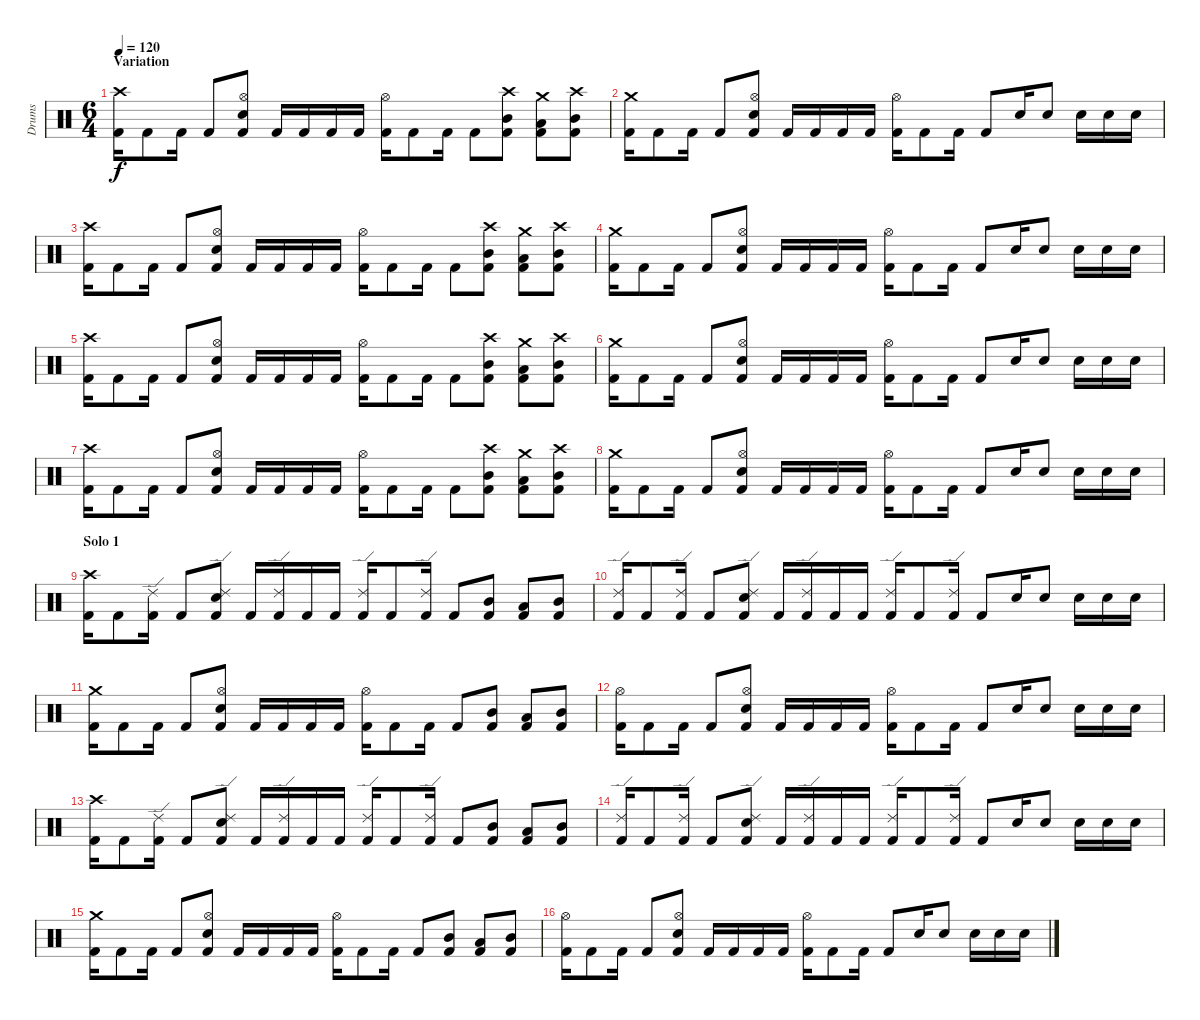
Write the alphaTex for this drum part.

\track ("Drums" "Drums") {instrument percussion}
\staff {score}
\articulation defaults
\ts (6 4)
\section ("" "Variation")
\tempo 120
\clef neutral
\ks c
("Crash high (hit)" "Kick (hit) 2").16{dy f} "Kick (hit) 2".8 "Kick (hit) 2".16 "Kick (hit) 2".8 ("Hi-Hat (open)" "Snare (hit) 2" "Kick (hit) 2").8 "Kick (hit) 2".16 "Kick (hit) 2".16 "Kick (hit) 2".16 "Kick (hit) 2".16 ("Hi-Hat (open)" "Kick (hit) 2").16 "Kick (hit) 2".8 "Kick (hit) 2".16 "Kick (hit) 2".8 ("Crash high (hit)" "Mid Tom (hit)" "Kick (hit) 2").8 ("Crash medium (hit)" "Low Tom (hit)" "Kick (hit) 2").8 ("Crash high (hit)" "Mid Tom (hit)" "Kick (hit) 2").8 |
("Crash medium (hit)" "Kick (hit) 2").16 "Kick (hit) 2".8 "Kick (hit) 2".16 "Kick (hit) 2".8 ("Hi-Hat (open)" "Snare (hit) 2" "Kick (hit) 2").8 "Kick (hit) 2".16 "Kick (hit) 2".16 "Kick (hit) 2".16 "Kick (hit) 2".16 ("Hi-Hat (open)" "Kick (hit) 2").16 "Kick (hit) 2".8 "Kick (hit) 2".16 "Kick (hit) 2".8 "Snare (hit) 2".16 "Snare (hit) 2".8 "Snare (hit) 2".16 "Snare (hit) 2".16 "Snare (hit) 2".16 |
("Crash high (hit)" "Kick (hit) 2").16 "Kick (hit) 2".8 "Kick (hit) 2".16 "Kick (hit) 2".8 ("Hi-Hat (open)" "Snare (hit) 2" "Kick (hit) 2").8 "Kick (hit) 2".16 "Kick (hit) 2".16 "Kick (hit) 2".16 "Kick (hit) 2".16 ("Hi-Hat (open)" "Kick (hit) 2").16 "Kick (hit) 2".8 "Kick (hit) 2".16 "Kick (hit) 2".8 ("Crash high (hit)" "Mid Tom (hit)" "Kick (hit) 2").8 ("Crash medium (hit)" "Low Tom (hit)" "Kick (hit) 2").8 ("Crash high (hit)" "Mid Tom (hit)" "Kick (hit) 2").8 |
("Crash medium (hit)" "Kick (hit) 2").16 "Kick (hit) 2".8 "Kick (hit) 2".16 "Kick (hit) 2".8 ("Hi-Hat (open)" "Snare (hit) 2" "Kick (hit) 2").8 "Kick (hit) 2".16 "Kick (hit) 2".16 "Kick (hit) 2".16 "Kick (hit) 2".16 ("Hi-Hat (open)" "Kick (hit) 2").16 "Kick (hit) 2".8 "Kick (hit) 2".16 "Kick (hit) 2".8 "Snare (hit) 2".16 "Snare (hit) 2".8 "Snare (hit) 2".16 "Snare (hit) 2".16 "Snare (hit) 2".16 |
("Crash high (hit)" "Kick (hit) 2").16 "Kick (hit) 2".8 "Kick (hit) 2".16 "Kick (hit) 2".8 ("Hi-Hat (open)" "Snare (hit) 2" "Kick (hit) 2").8 "Kick (hit) 2".16 "Kick (hit) 2".16 "Kick (hit) 2".16 "Kick (hit) 2".16 ("Hi-Hat (open)" "Kick (hit) 2").16 "Kick (hit) 2".8 "Kick (hit) 2".16 "Kick (hit) 2".8 ("Crash high (hit)" "Mid Tom (hit)" "Kick (hit) 2").8 ("Crash medium (hit)" "Low Tom (hit)" "Kick (hit) 2").8 ("Crash high (hit)" "Mid Tom (hit)" "Kick (hit) 2").8 |
("Crash medium (hit)" "Kick (hit) 2").16 "Kick (hit) 2".8 "Kick (hit) 2".16 "Kick (hit) 2".8 ("Hi-Hat (open)" "Snare (hit) 2" "Kick (hit) 2").8 "Kick (hit) 2".16 "Kick (hit) 2".16 "Kick (hit) 2".16 "Kick (hit) 2".16 ("Hi-Hat (open)" "Kick (hit) 2").16 "Kick (hit) 2".8 "Kick (hit) 2".16 "Kick (hit) 2".8 "Snare (hit) 2".16 "Snare (hit) 2".8 "Snare (hit) 2".16 "Snare (hit) 2".16 "Snare (hit) 2".16 |
("Crash high (hit)" "Kick (hit) 2").16 "Kick (hit) 2".8 "Kick (hit) 2".16 "Kick (hit) 2".8 ("Hi-Hat (open)" "Snare (hit) 2" "Kick (hit) 2").8 "Kick (hit) 2".16 "Kick (hit) 2".16 "Kick (hit) 2".16 "Kick (hit) 2".16 ("Hi-Hat (open)" "Kick (hit) 2").16 "Kick (hit) 2".8 "Kick (hit) 2".16 "Kick (hit) 2".8 ("Crash high (hit)" "Mid Tom (hit)" "Kick (hit) 2").8 ("Crash medium (hit)" "Low Tom (hit)" "Kick (hit) 2").8 ("Crash high (hit)" "Mid Tom (hit)" "Kick (hit) 2").8 |
("Crash medium (hit)" "Kick (hit) 2").16 "Kick (hit) 2".8 "Kick (hit) 2".16 "Kick (hit) 2".8 ("Hi-Hat (open)" "Snare (hit) 2" "Kick (hit) 2").8 "Kick (hit) 2".16 "Kick (hit) 2".16 "Kick (hit) 2".16 "Kick (hit) 2".16 ("Hi-Hat (open)" "Kick (hit) 2").16 "Kick (hit) 2".8 "Kick (hit) 2".16 "Kick (hit) 2".8 "Snare (hit) 2".16 "Snare (hit) 2".8 "Snare (hit) 2".16 "Snare (hit) 2".16 "Snare (hit) 2".16 |
\section ("" "Solo 1")
("Crash high (hit)" "Kick (hit) 2").16 "Kick (hit) 2".8 ("Ride (edge) 2" "Kick (hit) 2").16 "Kick (hit) 2".8 ("Ride (edge) 2" "Snare (hit) 2" "Kick (hit) 2").8 "Kick (hit) 2".16 ("Ride (edge) 2" "Kick (hit) 2").16 "Kick (hit) 2".16 "Kick (hit) 2".16 ("Ride (edge) 2" "Kick (hit) 2").16 "Kick (hit) 2".8 ("Ride (edge) 2" "Kick (hit) 2").16 "Kick (hit) 2".8 ("Mid Tom (hit)" "Kick (hit) 2").8 ("Low Tom (hit)" "Kick (hit) 2").8 ("Mid Tom (hit)" "Kick (hit) 2").8 |
("Ride (edge) 2" "Kick (hit) 2").16 "Kick (hit) 2".8 ("Ride (edge) 2" "Kick (hit) 2").16 "Kick (hit) 2".8 ("Ride (edge) 2" "Snare (hit) 2" "Kick (hit) 2").8 "Kick (hit) 2".16 ("Ride (edge) 2" "Kick (hit) 2").16 "Kick (hit) 2".16 "Kick (hit) 2".16 ("Ride (edge) 2" "Kick (hit) 2").16 "Kick (hit) 2".8 ("Ride (edge) 2" "Kick (hit) 2").16 "Kick (hit) 2".8 "Snare (hit) 2".16 "Snare (hit) 2".8 "Snare (hit) 2".16 "Snare (hit) 2".16 "Snare (hit) 2".16 |
("Crash medium (hit)" "Kick (hit) 2").16 "Kick (hit) 2".8 "Kick (hit) 2".16 "Kick (hit) 2".8 ("Hi-Hat (open)" "Snare (hit) 2" "Kick (hit) 2").8 "Kick (hit) 2".16 "Kick (hit) 2".16 "Kick (hit) 2".16 "Kick (hit) 2".16 ("Hi-Hat (open)" "Kick (hit) 2").16 "Kick (hit) 2".8 "Kick (hit) 2".16 "Kick (hit) 2".8 ("Mid Tom (hit)" "Kick (hit) 2").8 ("Low Tom (hit)" "Kick (hit) 2").8 ("Mid Tom (hit)" "Kick (hit) 2").8 |
("Hi-Hat (open)" "Kick (hit) 2").16 "Kick (hit) 2".8 "Kick (hit) 2".16 "Kick (hit) 2".8 ("Hi-Hat (open)" "Snare (hit) 2" "Kick (hit) 2").8 "Kick (hit) 2".16 "Kick (hit) 2".16 "Kick (hit) 2".16 "Kick (hit) 2".16 ("Hi-Hat (open)" "Kick (hit) 2").16 "Kick (hit) 2".8 "Kick (hit) 2".16 "Kick (hit) 2".8 "Snare (hit) 2".16 "Snare (hit) 2".8 "Snare (hit) 2".16 "Snare (hit) 2".16 "Snare (hit) 2".16 |
("Crash high (hit)" "Kick (hit) 2").16 "Kick (hit) 2".8 ("Ride (edge) 2" "Kick (hit) 2").16 "Kick (hit) 2".8 ("Ride (edge) 2" "Snare (hit) 2" "Kick (hit) 2").8 "Kick (hit) 2".16 ("Ride (edge) 2" "Kick (hit) 2").16 "Kick (hit) 2".16 "Kick (hit) 2".16 ("Ride (edge) 2" "Kick (hit) 2").16 "Kick (hit) 2".8 ("Ride (edge) 2" "Kick (hit) 2").16 "Kick (hit) 2".8 ("Mid Tom (hit)" "Kick (hit) 2").8 ("Low Tom (hit)" "Kick (hit) 2").8 ("Mid Tom (hit)" "Kick (hit) 2").8 |
("Ride (edge) 2" "Kick (hit) 2").16 "Kick (hit) 2".8 ("Ride (edge) 2" "Kick (hit) 2").16 "Kick (hit) 2".8 ("Ride (edge) 2" "Snare (hit) 2" "Kick (hit) 2").8 "Kick (hit) 2".16 ("Ride (edge) 2" "Kick (hit) 2").16 "Kick (hit) 2".16 "Kick (hit) 2".16 ("Ride (edge) 2" "Kick (hit) 2").16 "Kick (hit) 2".8 ("Ride (edge) 2" "Kick (hit) 2").16 "Kick (hit) 2".8 "Snare (hit) 2".16 "Snare (hit) 2".8 "Snare (hit) 2".16 "Snare (hit) 2".16 "Snare (hit) 2".16 |
("Crash medium (hit)" "Kick (hit) 2").16 "Kick (hit) 2".8 "Kick (hit) 2".16 "Kick (hit) 2".8 ("Hi-Hat (open)" "Snare (hit) 2" "Kick (hit) 2").8 "Kick (hit) 2".16 "Kick (hit) 2".16 "Kick (hit) 2".16 "Kick (hit) 2".16 ("Hi-Hat (open)" "Kick (hit) 2").16 "Kick (hit) 2".8 "Kick (hit) 2".16 "Kick (hit) 2".8 ("Mid Tom (hit)" "Kick (hit) 2").8 ("Low Tom (hit)" "Kick (hit) 2").8 ("Mid Tom (hit)" "Kick (hit) 2").8 |
("Hi-Hat (open)" "Kick (hit) 2").16 "Kick (hit) 2".8 "Kick (hit) 2".16 "Kick (hit) 2".8 ("Hi-Hat (open)" "Snare (hit) 2" "Kick (hit) 2").8 "Kick (hit) 2".16 "Kick (hit) 2".16 "Kick (hit) 2".16 "Kick (hit) 2".16 ("Hi-Hat (open)" "Kick (hit) 2").16 "Kick (hit) 2".8 "Kick (hit) 2".16 "Kick (hit) 2".8 "Snare (hit) 2".16 "Snare (hit) 2".8 "Snare (hit) 2".16 "Snare (hit) 2".16 "Snare (hit) 2".16
